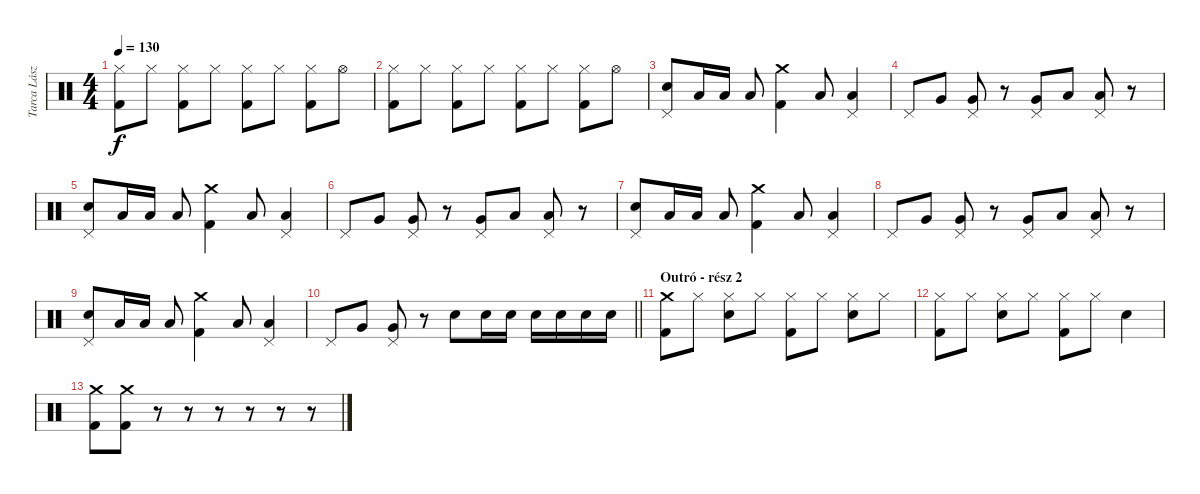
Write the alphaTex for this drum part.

\track ("Tarca László - dob" "Tarca Lász") {instrument percussion}
\staff {score}
\articulation defaults
\ts (4 4)
\tempo 130
\clef neutral
\ks c
("Hi-Hat (closed)" "Kick (hit) 2").8{dy f} "Hi-Hat (closed)".8 ("Hi-Hat (closed)" "Kick (hit) 2").8 "Hi-Hat (closed)".8 ("Hi-Hat (closed)" "Kick (hit) 2").8 "Hi-Hat (closed)".8 ("Hi-Hat (closed)" "Kick (hit) 2").8 "Hi-Hat (open)".8 |
("Hi-Hat (closed)" "Kick (hit) 2").8 "Hi-Hat (closed)".8 ("Hi-Hat (closed)" "Kick (hit) 2").8 "Hi-Hat (closed)".8 ("Hi-Hat (closed)" "Kick (hit) 2").8 "Hi-Hat (closed)".8 ("Hi-Hat (closed)" "Kick (hit) 2").8 "Hi-Hat (open)".8 |
("Pedal Hi-Hat (hit)" "Snare (hit) 2").8 "Low Tom (hit)".16 "Low Tom (hit)".16 "Low Tom (hit)".8 ("Crash medium (hit)" "Kick (hit) 2").4 "Low Tom (hit)".8 ("Pedal Hi-Hat (hit)" "Low Tom (hit)").4 |
"Pedal Hi-Hat (hit)".8 "Very Low Tom (hit)".8 ("Pedal Hi-Hat (hit)" "Very Low Tom (hit)").8 r.8 ("Pedal Hi-Hat (hit)" "Very Low Tom (hit)").8 "Low Floor Tom (hit)".8 ("Pedal Hi-Hat (hit)" "Low Floor Tom (hit)").8 r.8 |
("Pedal Hi-Hat (hit)" "Snare (hit) 2").8 "Low Tom (hit)".16 "Low Tom (hit)".16 "Low Tom (hit)".8 ("Crash medium (hit)" "Kick (hit) 2").4 "Low Tom (hit)".8 ("Pedal Hi-Hat (hit)" "Low Tom (hit)").4 |
"Pedal Hi-Hat (hit)".8 "Very Low Tom (hit)".8 ("Pedal Hi-Hat (hit)" "Very Low Tom (hit)").8 r.8 ("Pedal Hi-Hat (hit)" "Very Low Tom (hit)").8 "Low Floor Tom (hit)".8 ("Pedal Hi-Hat (hit)" "Low Floor Tom (hit)").8 r.8 |
("Pedal Hi-Hat (hit)" "Snare (hit) 2").8 "Low Tom (hit)".16 "Low Tom (hit)".16 "Low Tom (hit)".8 ("Crash medium (hit)" "Kick (hit) 2").4 "Low Tom (hit)".8 ("Pedal Hi-Hat (hit)" "Low Tom (hit)").4 |
"Pedal Hi-Hat (hit)".8 "Very Low Tom (hit)".8 ("Pedal Hi-Hat (hit)" "Very Low Tom (hit)").8 r.8 ("Pedal Hi-Hat (hit)" "Very Low Tom (hit)").8 "Low Floor Tom (hit)".8 ("Pedal Hi-Hat (hit)" "Low Floor Tom (hit)").8 r.8 |
("Pedal Hi-Hat (hit)" "Snare (hit) 2").8 "Low Tom (hit)".16 "Low Tom (hit)".16 "Low Tom (hit)".8 ("Crash medium (hit)" "Kick (hit) 2").4 "Low Tom (hit)".8 ("Pedal Hi-Hat (hit)" "Low Tom (hit)").4 |
\barLineRight lightlight "Pedal Hi-Hat (hit)".8 "Very Low Tom (hit)".8
("Pedal Hi-Hat (hit)" "Very Low Tom (hit)").8 r.8 "Snare (hit) 2".8 "Snare (hit) 2".16 "Snare (hit) 2".16 "Snare (hit) 2".16 "Snare (hit) 2".16 "Snare (hit) 2".16 "Snare (hit) 2".16 |
\section ("" "Outró - rész 2")
("Crash medium (hit)" "Kick (hit) 2").8 "Hi-Hat (closed)".8 ("Hi-Hat (closed)" "Snare (hit) 2").8 "Hi-Hat (closed)".8 ("Hi-Hat (closed)" "Kick (hit) 2").8 "Hi-Hat (closed)".8 ("Hi-Hat (closed)" "Snare (hit) 2").8 "Hi-Hat (closed)".8 |
("Hi-Hat (closed)" "Kick (hit) 2").8 "Hi-Hat (closed)".8 ("Hi-Hat (closed)" "Snare (hit) 2").8 "Hi-Hat (closed)".8 ("Hi-Hat (closed)" "Kick (hit) 2").8 "Hi-Hat (closed)".8 "Snare (hit) 2".4 |
("Crash medium (hit)" "Kick (hit) 2").8 ("Crash medium (hit)" "Kick (hit) 2").8 r.8 r.8 r.8 r.8 r.8 r.8
